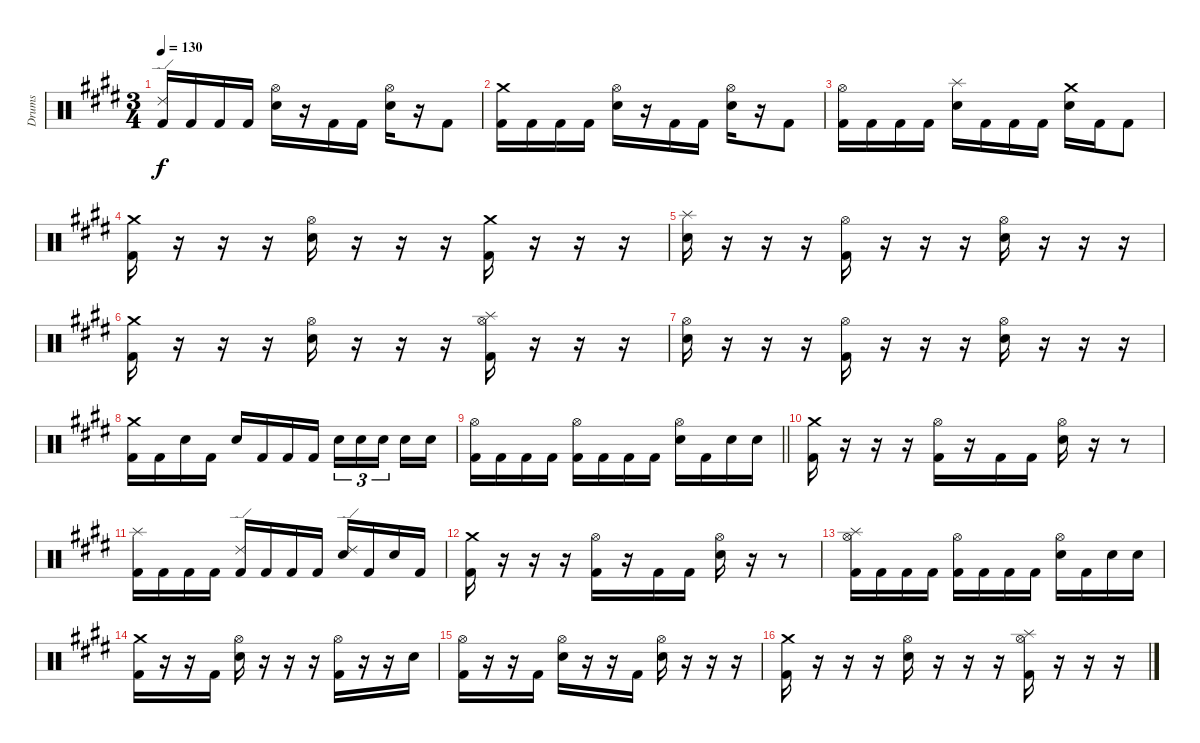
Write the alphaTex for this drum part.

\track ("Drums" "Drums") {instrument percussion}
\staff {score}
\articulation defaults
\ts (3 4)
\tempo 130
\clef neutral
\ks e
("Kick (hit) 2" "Ride (edge) 2").16{dy f} "Kick (hit) 2".16 "Kick (hit) 2".16 "Kick (hit) 2".16 ("Electric Snare (hit)" "Hi-Hat (open)").16 r.16 "Kick (hit) 2".16 "Kick (hit) 2".16 ("Electric Snare (hit)" "Hi-Hat (open)").16 r.16 "Kick (hit) 2".8 |
("Kick (hit) 2" "Crash medium (hit)").16 "Kick (hit) 2".16 "Kick (hit) 2".16 "Kick (hit) 2".16 ("Electric Snare (hit)" "Hi-Hat (open)").16 r.16 "Kick (hit) 2".16 "Kick (hit) 2".16 ("Electric Snare (hit)" "Hi-Hat (open)").16 r.16 "Kick (hit) 2".8 |
("Kick (hit) 2" "Hi-Hat (open)").16 "Kick (hit) 2".16 "Kick (hit) 2".16 "Kick (hit) 2".16 ("Electric Snare (hit)" "Splash (hit)").16 "Kick (hit) 2".16 "Kick (hit) 2".16 "Kick (hit) 2".16 ("Electric Snare (hit)" "Crash medium (hit)").16 "Kick (hit) 2".16 "Kick (hit) 2".8 |
("Kick (hit) 2" "Crash medium (hit)").16 r.16 r.16 r.16 ("Electric Snare (hit)" "Hi-Hat (open)").16 r.16 r.16 r.16 ("Kick (hit) 2" "Crash medium (hit)").16 r.16 r.16 r.16 |
("Electric Snare (hit)" "Splash (hit)").16 r.16 r.16 r.16 ("Kick (hit) 2" "Hi-Hat (open)").16 r.16 r.16 r.16 ("Electric Snare (hit)" "Hi-Hat (open)").16 r.16 r.16 r.16 |
("Kick (hit) 2" "Crash medium (hit)").16 r.16 r.16 r.16 ("Electric Snare (hit)" "Hi-Hat (open)").16 r.16 r.16 r.16 ("Kick (hit) 2" "Splash (hit)" "Hi-Hat (open)").16 r.16 r.16 r.16 |
("Electric Snare (hit)" "Hi-Hat (open)").16 r.16 r.16 r.16 ("Kick (hit) 2" "Hi-Hat (open)").16 r.16 r.16 r.16 ("Electric Snare (hit)" "Hi-Hat (open)").16 r.16 r.16 r.16 |
("Kick (hit) 2" "Crash medium (hit)").16 "Kick (hit) 2".16 "Electric Snare (hit)".16 "Kick (hit) 2".16 "Electric Snare (hit)".16 "Kick (hit) 2".16 "Kick (hit) 2".16 "Kick (hit) 2".16 "Electric Snare (hit)".16{tu (3 2)} "Electric Snare (hit)".16{tu (3 2)} "Electric Snare (hit)".16{tu (3 2) beam splitsecondary} "Electric Snare (hit)".16 "Electric Snare (hit)".16 |
\barLineRight lightlight
("Kick (hit) 2" "Hi-Hat (open)").16 "Kick (hit) 2".16 "Kick (hit) 2".16 "Kick (hit) 2".16 ("Kick (hit) 2" "Hi-Hat (open)").16 "Kick (hit) 2".16 "Kick (hit) 2".16 "Kick (hit) 2".16 ("Electric Snare (hit)" "Hi-Hat (open)").16 "Kick (hit) 2".16 "Electric Snare (hit)".16 "Electric Snare (hit)".16 |
("Kick (hit) 2" "Crash medium (hit)").16 r.16 r.16 r.16 ("Kick (hit) 2" "Hi-Hat (open)").16 r.16 "Kick (hit) 2".16 "Kick (hit) 2".16 ("Electric Snare (hit)" "Hi-Hat (open)").16 r.16 r.8 |
("Kick (hit) 2" "Splash (hit)").16 "Kick (hit) 2".16 "Kick (hit) 2".16 "Kick (hit) 2".16 ("Kick (hit) 2" "Ride (edge) 2").16 "Kick (hit) 2".16 "Kick (hit) 2".16 "Kick (hit) 2".16 ("Electric Snare (hit)" "Ride (edge) 2").16 "Kick (hit) 2".16 "Electric Snare (hit)".16 "Kick (hit) 2".16 |
("Kick (hit) 2" "Crash medium (hit)").16 r.16 r.16 r.16 ("Kick (hit) 2" "Hi-Hat (open)").16 r.16 "Kick (hit) 2".16 "Kick (hit) 2".16 ("Electric Snare (hit)" "Hi-Hat (open)").16 r.16 r.8 |
("Kick (hit) 2" "Splash (hit)" "Hi-Hat (open)").16 "Kick (hit) 2".16 "Kick (hit) 2".16 "Kick (hit) 2".16 ("Kick (hit) 2" "Hi-Hat (open)").16 "Kick (hit) 2".16 "Kick (hit) 2".16 "Kick (hit) 2".16 ("Electric Snare (hit)" "Hi-Hat (open)").16 "Kick (hit) 2".16 "Electric Snare (hit)".16 "Electric Snare (hit)".16 |
("Kick (hit) 2" "Crash medium (hit)").16 r.16 r.16 "Kick (hit) 2".16 ("Electric Snare (hit)" "Hi-Hat (open)").16 r.16 r.16 r.16 ("Kick (hit) 2" "Hi-Hat (open)").16 r.16 r.16 "Electric Snare (hit)".16 |
("Kick (hit) 2" "Hi-Hat (open)").16 r.16 r.16 "Kick (hit) 2".16 ("Electric Snare (hit)" "Hi-Hat (open)").16 r.16 r.16 "Kick (hit) 2".16 ("Electric Snare (hit)" "Hi-Hat (open)").16 r.16 r.16 r.16 |
("Kick (hit) 2" "Crash medium (hit)").16 r.16 r.16 r.16 ("Electric Snare (hit)" "Hi-Hat (open)").16 r.16 r.16 r.16 ("Kick (hit) 2" "Splash (hit)" "Hi-Hat (open)").16 r.16 r.16 r.16
